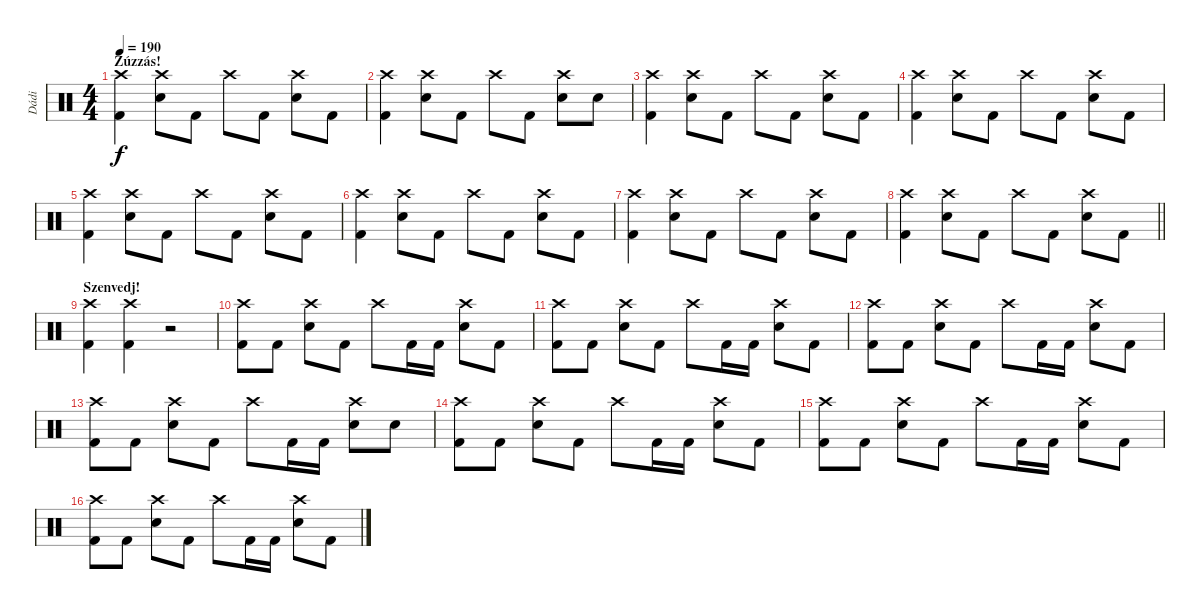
\track ("Dádi" "Dádi") {instrument percussion}
\staff {score}
\articulation defaults
\ts (4 4)
\section ("" "Zúzzás!")
\tempo 190
\clef neutral
\ks c
("Crash high (hit)" "Kick (hit) 2").4{dy f} ("Crash high (hit)" "Electric Snare (hit)").8 "Kick (hit) 2".8 "Crash high (hit)".8 "Kick (hit) 2".8 ("Electric Snare (hit)" "Crash high (hit)").8 "Kick (hit) 2".8 |
("Kick (hit) 2" "Crash high (hit)").4 ("Electric Snare (hit)" "Crash high (hit)").8 "Kick (hit) 2".8 "Crash high (hit)".8 "Kick (hit) 2".8 ("Crash high (hit)" "Electric Snare (hit)").8 "Electric Snare (hit)".8 |
("Kick (hit) 2" "Crash high (hit)").4 ("Crash high (hit)" "Electric Snare (hit)").8 "Kick (hit) 2".8 "Crash high (hit)".8 "Kick (hit) 2".8 ("Electric Snare (hit)" "Crash high (hit)").8 "Kick (hit) 2".8 |
("Crash high (hit)" "Kick (hit) 2").4 ("Electric Snare (hit)" "Crash high (hit)").8 "Kick (hit) 2".8 "Crash high (hit)".8 "Kick (hit) 2".8 ("Electric Snare (hit)" "Crash high (hit)").8 "Kick (hit) 2".8 |
("Kick (hit) 2" "Crash high (hit)").4 ("Electric Snare (hit)" "Crash high (hit)").8 "Kick (hit) 2".8 "Crash high (hit)".8 "Kick (hit) 2".8 ("Electric Snare (hit)" "Crash high (hit)").8 "Kick (hit) 2".8 |
("Kick (hit) 2" "Crash high (hit)").4 ("Electric Snare (hit)" "Crash high (hit)").8 "Kick (hit) 2".8 "Crash high (hit)".8 "Kick (hit) 2".8 ("Crash high (hit)" "Electric Snare (hit)").8 "Kick (hit) 2".8 |
("Kick (hit) 2" "Crash high (hit)").4 ("Crash high (hit)" "Electric Snare (hit)").8 "Kick (hit) 2".8 "Crash high (hit)".8 "Kick (hit) 2".8 ("Electric Snare (hit)" "Crash high (hit)").8 "Kick (hit) 2".8 |
\barLineRight lightlight
("Crash high (hit)" "Kick (hit) 2").4 ("Crash high (hit)" "Electric Snare (hit)").8 "Kick (hit) 2".8 "Crash high (hit)".8 "Kick (hit) 2".8 ("Crash high (hit)" "Electric Snare (hit)").8 "Kick (hit) 2".8 |
\section ("" "Szenvedj!")
("Kick (hit) 2" "Crash high (hit)").4 ("Crash high (hit)" "Kick (hit) 2").4 r.2 |
("Kick (hit) 2" "Crash high (hit)").8 "Kick (hit) 2".8 ("Electric Snare (hit)" "Crash high (hit)").8 "Kick (hit) 2".8 "Crash high (hit)".8 "Kick (hit) 2".16 "Kick (hit) 2".16 ("Electric Snare (hit)" "Crash high (hit)").8 "Kick (hit) 2".8 |
("Kick (hit) 2" "Crash high (hit)").8 "Kick (hit) 2".8 ("Electric Snare (hit)" "Crash high (hit)").8 "Kick (hit) 2".8 "Crash high (hit)".8 "Kick (hit) 2".16 "Kick (hit) 2".16 ("Electric Snare (hit)" "Crash high (hit)").8 "Kick (hit) 2".8 |
("Kick (hit) 2" "Crash high (hit)").8 "Kick (hit) 2".8 ("Electric Snare (hit)" "Crash high (hit)").8 "Kick (hit) 2".8 "Crash high (hit)".8 "Kick (hit) 2".16 "Kick (hit) 2".16 ("Electric Snare (hit)" "Crash high (hit)").8 "Kick (hit) 2".8 |
("Kick (hit) 2" "Crash high (hit)").8 "Kick (hit) 2".8 ("Electric Snare (hit)" "Crash high (hit)").8 "Kick (hit) 2".8 "Crash high (hit)".8 "Kick (hit) 2".16 "Kick (hit) 2".16 ("Electric Snare (hit)" "Crash high (hit)").8 "Electric Snare (hit)".8 |
("Kick (hit) 2" "Crash high (hit)").8 "Kick (hit) 2".8 ("Electric Snare (hit)" "Crash high (hit)").8 "Kick (hit) 2".8 "Crash high (hit)".8 "Kick (hit) 2".16 "Kick (hit) 2".16 ("Electric Snare (hit)" "Crash high (hit)").8 "Kick (hit) 2".8 |
("Kick (hit) 2" "Crash high (hit)").8 "Kick (hit) 2".8 ("Electric Snare (hit)" "Crash high (hit)").8 "Kick (hit) 2".8 "Crash high (hit)".8 "Kick (hit) 2".16 "Kick (hit) 2".16 ("Crash high (hit)" "Electric Snare (hit)").8 "Kick (hit) 2".8 |
("Kick (hit) 2" "Crash high (hit)").8 "Kick (hit) 2".8 ("Electric Snare (hit)" "Crash high (hit)").8 "Kick (hit) 2".8 "Crash high (hit)".8 "Kick (hit) 2".16 "Kick (hit) 2".16 ("Electric Snare (hit)" "Crash high (hit)").8 "Kick (hit) 2".8
